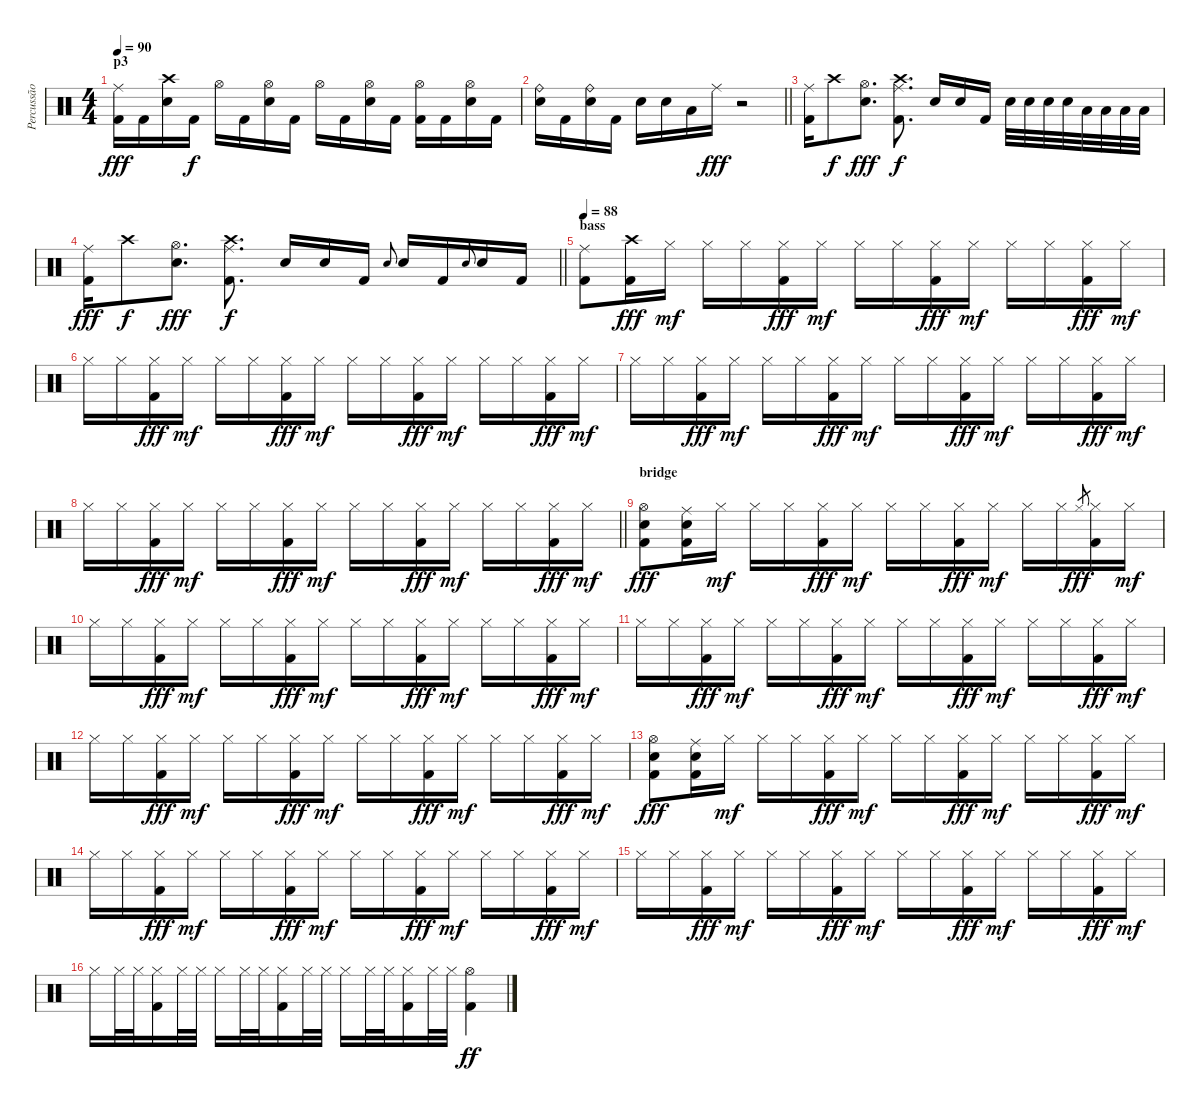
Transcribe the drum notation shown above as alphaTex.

\track ("Percussão" "Percussão") {instrument percussion}
\staff {score}
\articulation defaults
\ts (4 4)
\section ("" "p3")
\tempo 90
\clef neutral
\ks c
("Ride (middle)" "Kick (hit) 2").16{dy fff} "Kick (hit) 2".16 ("Crash high (hit)" "Electric Snare (hit)").16 "Kick (hit) 2".16{dy f} "Hi-Hat (open)".16 "Kick (hit) 2".16 ("Hi-Hat (open)" "Electric Snare (hit)").16 "Kick (hit) 2".16 "Hi-Hat (open)".16 "Kick (hit) 2".16 ("Hi-Hat (open)" "Electric Snare (hit)").16 "Kick (hit) 2".16 ("Hi-Hat (open)" "Kick (hit) 2").16 "Kick (hit) 2".16 ("Hi-Hat (open)" "Electric Snare (hit)").16 "Kick (hit) 2".16 |
\barLineRight lightlight
("Ride (bell)" "Electric Snare (hit)").16 "Kick (hit) 2".16 ("Ride (bell)" "Electric Snare (hit)").16 "Kick (hit) 2".16 "Electric Snare (hit)".16 "Electric Snare (hit)".16 "Low Floor Tom (hit)".16 "Ride (middle)".16{dy fff} r.2 |
("Ride (middle)" "Kick (hit) 2").16 "Crash high (hit)".8{dy f} ("Hi-Hat (open)" "Electric Snare (hit)").8{d dy fff} ("Crash high (hit)" "Ride (middle)" "Kick (hit) 2").8{d dy f} "Electric Snare (hit)".16 "Electric Snare (hit)".16 "Kick (hit) 2".16 "Electric Snare (hit)".32 "Electric Snare (hit)".32 "Electric Snare (hit)".32 "Electric Snare (hit)".32 "Low Floor Tom (hit)".32 "Low Floor Tom (hit)".32 "Low Floor Tom (hit)".32 "Low Floor Tom (hit)".32 |
\barLineRight lightlight
("Ride (middle)" "Kick (hit) 2").16{dy fff} "Crash high (hit)".8{dy f} ("Hi-Hat (open)" "Electric Snare (hit)").8{d dy fff} ("Crash high (hit)" "Ride (middle)" "Kick (hit) 2").8{d dy f} "Electric Snare (hit)".16 "Electric Snare (hit)".16 "Kick (hit) 2".16 "Electric Snare (hit)".8{gr onbeat} "Electric Snare (hit)".16 "Kick (hit) 2".16 "Electric Snare (hit)".8{gr onbeat} "Electric Snare (hit)".16 "Kick (hit) 2".16 |
\section ("" "bass")
\tempo 88
("Ride (middle)" "Kick (hit) 2").8 ("Crash high (hit)" "Kick (hit) 2").16{dy fff} "Hi-Hat (closed)".16{dy mf} "Hi-Hat (closed)".16 "Hi-Hat (closed)".16 ("Hi-Hat (closed)" "Kick (hit) 2").16{dy fff} "Hi-Hat (closed)".16{dy mf} "Hi-Hat (closed)".16 "Hi-Hat (closed)".16 ("Hi-Hat (closed)" "Kick (hit) 2").16{dy fff} "Hi-Hat (closed)".16{dy mf} "Hi-Hat (closed)".16 "Hi-Hat (closed)".16 ("Hi-Hat (closed)" "Kick (hit) 2").16{dy fff} "Hi-Hat (closed)".16{dy mf} |
"Hi-Hat (closed)".16 "Hi-Hat (closed)".16 ("Hi-Hat (closed)" "Kick (hit) 2").16{dy fff} "Hi-Hat (closed)".16{dy mf} "Hi-Hat (closed)".16 "Hi-Hat (closed)".16 ("Hi-Hat (closed)" "Kick (hit) 2").16{dy fff} "Hi-Hat (closed)".16{dy mf} "Hi-Hat (closed)".16 "Hi-Hat (closed)".16 ("Hi-Hat (closed)" "Kick (hit) 2").16{dy fff} "Hi-Hat (closed)".16{dy mf} "Hi-Hat (closed)".16 "Hi-Hat (closed)".16 ("Hi-Hat (closed)" "Kick (hit) 2").16{dy fff} "Hi-Hat (closed)".16{dy mf} |
"Hi-Hat (closed)".16 "Hi-Hat (closed)".16 ("Hi-Hat (closed)" "Kick (hit) 2").16{dy fff} "Hi-Hat (closed)".16{dy mf} "Hi-Hat (closed)".16 "Hi-Hat (closed)".16 ("Hi-Hat (closed)" "Kick (hit) 2").16{dy fff} "Hi-Hat (closed)".16{dy mf} "Hi-Hat (closed)".16 "Hi-Hat (closed)".16 ("Hi-Hat (closed)" "Kick (hit) 2").16{dy fff} "Hi-Hat (closed)".16{dy mf} "Hi-Hat (closed)".16 "Hi-Hat (closed)".16 ("Hi-Hat (closed)" "Kick (hit) 2").16{dy fff} "Hi-Hat (closed)".16{dy mf} |
\barLineRight lightlight "Hi-Hat (closed)".16 "Hi-Hat (closed)".16
("Hi-Hat (closed)" "Kick (hit) 2").16{dy fff} "Hi-Hat (closed)".16{dy mf} "Hi-Hat (closed)".16 "Hi-Hat (closed)".16 ("Hi-Hat (closed)" "Kick (hit) 2").16{dy fff} "Hi-Hat (closed)".16{dy mf} "Hi-Hat (closed)".16 "Hi-Hat (closed)".16 ("Hi-Hat (closed)" "Kick (hit) 2").16{dy fff} "Hi-Hat (closed)".16{dy mf} "Hi-Hat (closed)".16 "Hi-Hat (closed)".16 ("Hi-Hat (closed)" "Kick (hit) 2").16{dy fff} "Hi-Hat (closed)".16{dy mf} |
\section ("" "bridge")
("Hi-Hat (open)" "Electric Snare (hit)" "Kick (hit) 2").8{dy fff} ("Ride (middle)" "Electric Snare (hit)" "Kick (hit) 2").16 "Hi-Hat (closed)".16{dy mf} "Hi-Hat (closed)".16 "Hi-Hat (closed)".16 ("Hi-Hat (closed)" "Kick (hit) 2").16{dy fff} "Hi-Hat (closed)".16{dy mf} "Hi-Hat (closed)".16 "Hi-Hat (closed)".16 ("Hi-Hat (closed)" "Kick (hit) 2").16{dy fff} "Hi-Hat (closed)".16{dy mf} "Hi-Hat (closed)".16 "Hi-Hat (closed)".16 "Hi-Hat (closed)".8{gr dy fff} ("Hi-Hat (closed)" "Kick (hit) 2").16 "Hi-Hat (closed)".16{dy mf} |
"Hi-Hat (closed)".16 "Hi-Hat (closed)".16 ("Hi-Hat (closed)" "Kick (hit) 2").16{dy fff} "Hi-Hat (closed)".16{dy mf} "Hi-Hat (closed)".16 "Hi-Hat (closed)".16 ("Hi-Hat (closed)" "Kick (hit) 2").16{dy fff} "Hi-Hat (closed)".16{dy mf} "Hi-Hat (closed)".16 "Hi-Hat (closed)".16 ("Hi-Hat (closed)" "Kick (hit) 2").16{dy fff} "Hi-Hat (closed)".16{dy mf} "Hi-Hat (closed)".16 "Hi-Hat (closed)".16 ("Hi-Hat (closed)" "Kick (hit) 2").16{dy fff} "Hi-Hat (closed)".16{dy mf} |
"Hi-Hat (closed)".16 "Hi-Hat (closed)".16 ("Hi-Hat (closed)" "Kick (hit) 2").16{dy fff} "Hi-Hat (closed)".16{dy mf} "Hi-Hat (closed)".16 "Hi-Hat (closed)".16 ("Hi-Hat (closed)" "Kick (hit) 2").16{dy fff} "Hi-Hat (closed)".16{dy mf} "Hi-Hat (closed)".16 "Hi-Hat (closed)".16 ("Hi-Hat (closed)" "Kick (hit) 2").16{dy fff} "Hi-Hat (closed)".16{dy mf} "Hi-Hat (closed)".16 "Hi-Hat (closed)".16 ("Hi-Hat (closed)" "Kick (hit) 2").16{dy fff} "Hi-Hat (closed)".16{dy mf} |
"Hi-Hat (closed)".16 "Hi-Hat (closed)".16 ("Hi-Hat (closed)" "Kick (hit) 2").16{dy fff} "Hi-Hat (closed)".16{dy mf} "Hi-Hat (closed)".16 "Hi-Hat (closed)".16 ("Hi-Hat (closed)" "Kick (hit) 2").16{dy fff} "Hi-Hat (closed)".16{dy mf} "Hi-Hat (closed)".16 "Hi-Hat (closed)".16 ("Hi-Hat (closed)" "Kick (hit) 2").16{dy fff} "Hi-Hat (closed)".16{dy mf} "Hi-Hat (closed)".16 "Hi-Hat (closed)".16 ("Hi-Hat (closed)" "Kick (hit) 2").16{dy fff} "Hi-Hat (closed)".16{dy mf} |
("Hi-Hat (open)" "Electric Snare (hit)" "Kick (hit) 2").8{dy fff} ("Ride (middle)" "Electric Snare (hit)" "Kick (hit) 2").16 "Hi-Hat (closed)".16{dy mf} "Hi-Hat (closed)".16 "Hi-Hat (closed)".16 ("Hi-Hat (closed)" "Kick (hit) 2").16{dy fff} "Hi-Hat (closed)".16{dy mf} "Hi-Hat (closed)".16 "Hi-Hat (closed)".16 ("Hi-Hat (closed)" "Kick (hit) 2").16{dy fff} "Hi-Hat (closed)".16{dy mf} "Hi-Hat (closed)".16 "Hi-Hat (closed)".16 ("Hi-Hat (closed)" "Kick (hit) 2").16{dy fff} "Hi-Hat (closed)".16{dy mf} |
"Hi-Hat (closed)".16 "Hi-Hat (closed)".16 ("Hi-Hat (closed)" "Kick (hit) 2").16{dy fff} "Hi-Hat (closed)".16{dy mf} "Hi-Hat (closed)".16 "Hi-Hat (closed)".16 ("Hi-Hat (closed)" "Kick (hit) 2").16{dy fff} "Hi-Hat (closed)".16{dy mf} "Hi-Hat (closed)".16 "Hi-Hat (closed)".16 ("Hi-Hat (closed)" "Kick (hit) 2").16{dy fff} "Hi-Hat (closed)".16{dy mf} "Hi-Hat (closed)".16 "Hi-Hat (closed)".16 ("Hi-Hat (closed)" "Kick (hit) 2").16{dy fff} "Hi-Hat (closed)".16{dy mf} |
"Hi-Hat (closed)".16 "Hi-Hat (closed)".16 ("Hi-Hat (closed)" "Kick (hit) 2").16{dy fff} "Hi-Hat (closed)".16{dy mf} "Hi-Hat (closed)".16 "Hi-Hat (closed)".16 ("Hi-Hat (closed)" "Kick (hit) 2").16{dy fff} "Hi-Hat (closed)".16{dy mf} "Hi-Hat (closed)".16 "Hi-Hat (closed)".16 ("Hi-Hat (closed)" "Kick (hit) 2").16{dy fff} "Hi-Hat (closed)".16{dy mf} "Hi-Hat (closed)".16 "Hi-Hat (closed)".16 ("Hi-Hat (closed)" "Kick (hit) 2").16{dy fff} "Hi-Hat (closed)".16{dy mf} |
"Hi-Hat (closed)".16 "Hi-Hat (closed)".32 "Hi-Hat (closed)".32 ("Hi-Hat (closed)" "Kick (hit) 2").16 "Hi-Hat (closed)".32 "Hi-Hat (closed)".32 "Hi-Hat (closed)".16 "Hi-Hat (closed)".32 "Hi-Hat (closed)".32 ("Hi-Hat (closed)" "Kick (hit) 2").16 "Hi-Hat (closed)".32 "Hi-Hat (closed)".32 "Hi-Hat (closed)".16 "Hi-Hat (closed)".32 "Hi-Hat (closed)".32 ("Hi-Hat (closed)" "Kick (hit) 2").16 "Hi-Hat (closed)".32 "Hi-Hat (closed)".32 ("Hi-Hat (open)" "Kick (hit) 2").4{dy ff}
